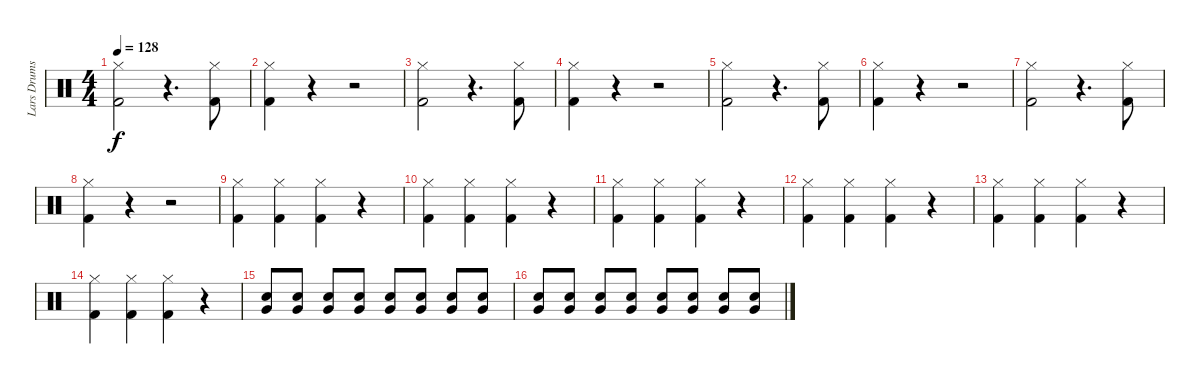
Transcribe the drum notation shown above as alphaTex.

\track ("Lars Drums" "Lars Drums") {instrument percussion}
\staff {score}
\articulation defaults
\ts (4 4)
\tempo 128
\clef neutral
\ks c
("Hi-Hat (closed)" "Kick (hit) 2").2{dy f} r.4{d} ("Hi-Hat (closed)" "Kick (hit) 2").8 |
("Hi-Hat (closed)" "Kick (hit) 2").4 r.4 r.2 |
("Hi-Hat (closed)" "Kick (hit) 2").2 r.4{d} ("Hi-Hat (closed)" "Kick (hit) 2").8 |
("Hi-Hat (closed)" "Kick (hit) 2").4 r.4 r.2 |
("Hi-Hat (closed)" "Kick (hit) 2").2 r.4{d} ("Hi-Hat (closed)" "Kick (hit) 2").8 |
("Hi-Hat (closed)" "Kick (hit) 2").4 r.4 r.2 |
("Hi-Hat (closed)" "Kick (hit) 2").2 r.4{d} ("Hi-Hat (closed)" "Kick (hit) 2").8 |
("Hi-Hat (closed)" "Kick (hit) 2").4 r.4 r.2 |
("Hi-Hat (closed)" "Kick (hit) 2").4 ("Hi-Hat (closed)" "Kick (hit) 2").4 ("Hi-Hat (closed)" "Kick (hit) 2").4 r.4 |
("Hi-Hat (closed)" "Kick (hit) 2").4 ("Hi-Hat (closed)" "Kick (hit) 2").4 ("Hi-Hat (closed)" "Kick (hit) 2").4 r.4 |
("Hi-Hat (closed)" "Kick (hit) 2").4 ("Hi-Hat (closed)" "Kick (hit) 2").4 ("Hi-Hat (closed)" "Kick (hit) 2").4 r.4 |
("Hi-Hat (closed)" "Kick (hit) 2").4 ("Hi-Hat (closed)" "Kick (hit) 2").4 ("Hi-Hat (closed)" "Kick (hit) 2").4 r.4 |
("Hi-Hat (closed)" "Kick (hit) 2").4 ("Hi-Hat (closed)" "Kick (hit) 2").4 ("Hi-Hat (closed)" "Kick (hit) 2").4 r.4 |
("Hi-Hat (closed)" "Kick (hit) 2").4 ("Hi-Hat (closed)" "Kick (hit) 2").4 ("Hi-Hat (closed)" "Kick (hit) 2").4 r.4 |
("Electric Snare (hit)" "Very Low Tom (hit)").8 ("Electric Snare (hit)" "Very Low Tom (hit)").8 ("Electric Snare (hit)" "Very Low Tom (hit)").8 ("Electric Snare (hit)" "Very Low Tom (hit)").8 ("Electric Snare (hit)" "Very Low Tom (hit)").8 ("Electric Snare (hit)" "Very Low Tom (hit)").8 ("Electric Snare (hit)" "Very Low Tom (hit)").8 ("Electric Snare (hit)" "Very Low Tom (hit)").8 |
("Electric Snare (hit)" "Very Low Tom (hit)").8 ("Electric Snare (hit)" "Very Low Tom (hit)").8 ("Electric Snare (hit)" "Very Low Tom (hit)").8 ("Electric Snare (hit)" "Very Low Tom (hit)").8 ("Electric Snare (hit)" "Very Low Tom (hit)").8 ("Electric Snare (hit)" "Very Low Tom (hit)").8 ("Electric Snare (hit)" "Very Low Tom (hit)").8 ("Electric Snare (hit)" "Very Low Tom (hit)").8
